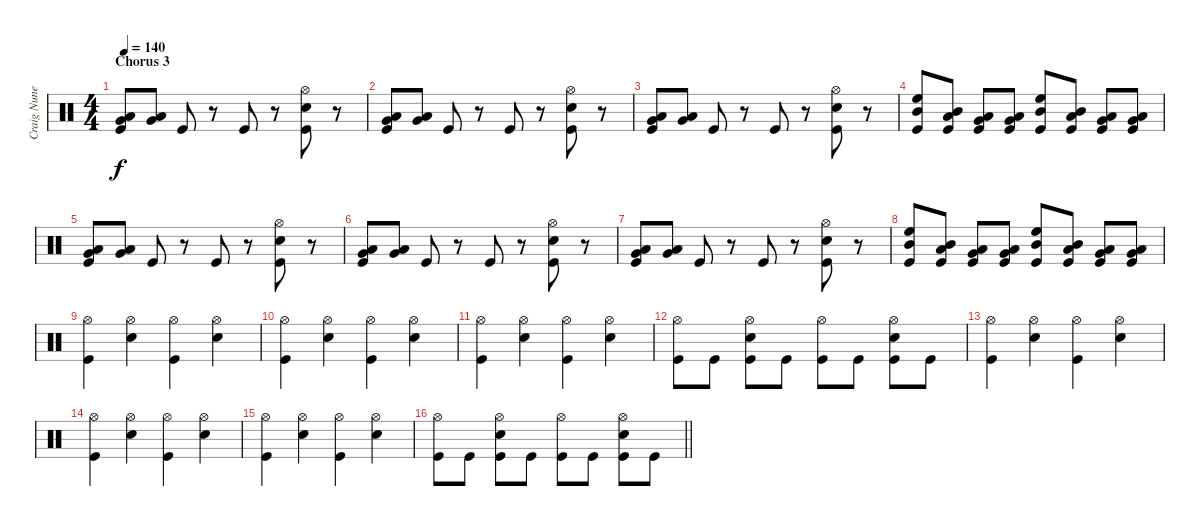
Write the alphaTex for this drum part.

\track ("Craig Nunenmacher" "Craig Nune") {instrument percussion}
\staff {score}
\articulation defaults
\ts (4 4)
\section ("" "Chorus 3")
\tempo 140
\clef neutral
\ks c
("Low Floor Tom (hit)" "Very Low Tom (hit)" "Kick (hit)").8{dy f} ("Low Floor Tom (hit)" "Very Low Tom (hit)").8 "Kick (hit)".8 r.8 "Kick (hit)".8 r.8 ("Snare (hit) 2" "Hi-Hat (open)" "Kick (hit)").8 r.8 |
("Low Floor Tom (hit)" "Very Low Tom (hit)" "Kick (hit)").8 ("Low Floor Tom (hit)" "Very Low Tom (hit)").8 "Kick (hit)".8 r.8 "Kick (hit)".8 r.8 ("Snare (hit) 2" "Hi-Hat (open)" "Kick (hit)").8 r.8 |
("Low Floor Tom (hit)" "Very Low Tom (hit)" "Kick (hit)").8 ("Low Floor Tom (hit)" "Very Low Tom (hit)").8 "Kick (hit)".8 r.8 "Kick (hit)".8 r.8 ("Snare (hit) 2" "Hi-Hat (open)" "Kick (hit)").8 r.8 |
("High Floor Tom (hit)" "Mid Tom (hit)" "Kick (hit)").8 ("Mid Tom (hit)" "Low Tom (hit)" "Kick (hit)").8 ("Low Tom (hit)" "Very Low Tom (hit)" "Kick (hit)").8 ("Very Low Tom (hit)" "Low Floor Tom (hit)" "Kick (hit)").8 ("High Floor Tom (hit)" "Mid Tom (hit)" "Kick (hit)").8 ("Mid Tom (hit)" "Low Tom (hit)" "Kick (hit)").8 ("Low Tom (hit)" "Very Low Tom (hit)" "Kick (hit)").8 ("Very Low Tom (hit)" "Low Floor Tom (hit)" "Kick (hit)").8 |
("Low Floor Tom (hit)" "Very Low Tom (hit)" "Kick (hit)").8 ("Low Floor Tom (hit)" "Very Low Tom (hit)").8 "Kick (hit)".8 r.8 "Kick (hit)".8 r.8 ("Snare (hit) 2" "Hi-Hat (open)" "Kick (hit)").8 r.8 |
("Low Floor Tom (hit)" "Very Low Tom (hit)" "Kick (hit)").8 ("Low Floor Tom (hit)" "Very Low Tom (hit)").8 "Kick (hit)".8 r.8 "Kick (hit)".8 r.8 ("Snare (hit) 2" "Hi-Hat (open)" "Kick (hit)").8 r.8 |
("Low Floor Tom (hit)" "Very Low Tom (hit)" "Kick (hit)").8 ("Low Floor Tom (hit)" "Very Low Tom (hit)").8 "Kick (hit)".8 r.8 "Kick (hit)".8 r.8 ("Snare (hit) 2" "Hi-Hat (open)" "Kick (hit)").8 r.8 |
("High Floor Tom (hit)" "Mid Tom (hit)" "Kick (hit)").8 ("Mid Tom (hit)" "Low Tom (hit)" "Kick (hit)").8 ("Low Tom (hit)" "Very Low Tom (hit)" "Kick (hit)").8 ("Very Low Tom (hit)" "Low Floor Tom (hit)" "Kick (hit)").8 ("High Floor Tom (hit)" "Mid Tom (hit)" "Kick (hit)").8 ("Mid Tom (hit)" "Low Tom (hit)" "Kick (hit)").8 ("Low Tom (hit)" "Very Low Tom (hit)" "Kick (hit)").8 ("Very Low Tom (hit)" "Low Floor Tom (hit)" "Kick (hit)").8 |
("Hi-Hat (open)" "Kick (hit)").4 ("Snare (hit) 2" "Hi-Hat (open)").4 ("Hi-Hat (open)" "Kick (hit)").4 ("Snare (hit) 2" "Hi-Hat (open)").4 |
("Hi-Hat (open)" "Kick (hit)").4 ("Snare (hit) 2" "Hi-Hat (open)").4 ("Hi-Hat (open)" "Kick (hit)").4 ("Snare (hit) 2" "Hi-Hat (open)").4 |
("Hi-Hat (open)" "Kick (hit)").4 ("Snare (hit) 2" "Hi-Hat (open)").4 ("Hi-Hat (open)" "Kick (hit)").4 ("Snare (hit) 2" "Hi-Hat (open)").4 |
("Hi-Hat (open)" "Kick (hit)").8 "Kick (hit)".8 ("Snare (hit) 2" "Hi-Hat (open)" "Kick (hit)").8 "Kick (hit)".8 ("Hi-Hat (open)" "Kick (hit)").8 "Kick (hit)".8 ("Snare (hit) 2" "Hi-Hat (open)" "Kick (hit)").8 "Kick (hit)".8 |
("Hi-Hat (open)" "Kick (hit)").4 ("Snare (hit) 2" "Hi-Hat (open)").4 ("Hi-Hat (open)" "Kick (hit)").4 ("Snare (hit) 2" "Hi-Hat (open)").4 |
("Hi-Hat (open)" "Kick (hit)").4 ("Snare (hit) 2" "Hi-Hat (open)").4 ("Hi-Hat (open)" "Kick (hit)").4 ("Snare (hit) 2" "Hi-Hat (open)").4 |
("Hi-Hat (open)" "Kick (hit)").4 ("Snare (hit) 2" "Hi-Hat (open)").4 ("Hi-Hat (open)" "Kick (hit)").4 ("Snare (hit) 2" "Hi-Hat (open)").4 |
\barLineRight lightlight
("Hi-Hat (open)" "Kick (hit)").8 "Kick (hit)".8 ("Snare (hit) 2" "Hi-Hat (open)" "Kick (hit)").8 "Kick (hit)".8 ("Hi-Hat (open)" "Kick (hit)").8 "Kick (hit)".8 ("Snare (hit) 2" "Hi-Hat (open)" "Kick (hit)").8 "Kick (hit)".8
